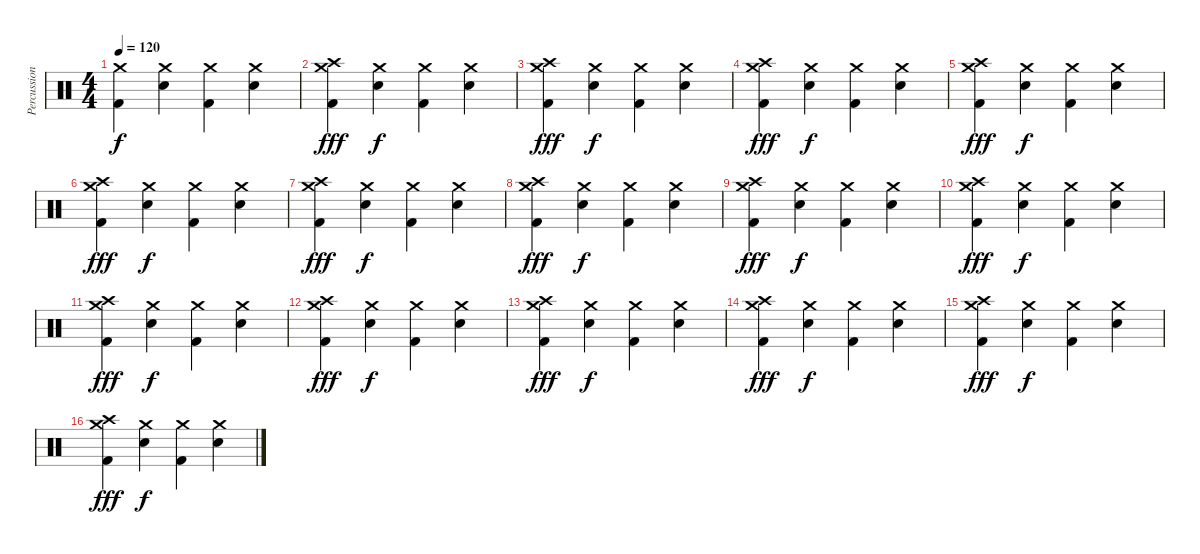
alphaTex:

\track ("Percussion" "Percussion") {instrument percussion}
\staff {score}
\articulation defaults
\ts (4 4)
\tempo 120
\clef neutral
\ks c
("Crash medium (hit)" "Kick (hit) 2").4{dy f} ("Crash medium (hit)" "Snare (hit) 2").4 ("Crash medium (hit)" "Kick (hit) 2").4 ("Crash medium (hit)" "Snare (hit) 2").4 |
("Crash medium (hit)" "Kick (hit) 2" "Crash high (hit)").4{dy fff} ("Crash medium (hit)" "Snare (hit) 2").4{dy f} ("Crash medium (hit)" "Kick (hit) 2").4 ("Crash medium (hit)" "Snare (hit) 2").4 |
("Crash medium (hit)" "Kick (hit) 2" "Crash high (hit)").4{dy fff} ("Crash medium (hit)" "Snare (hit) 2").4{dy f} ("Crash medium (hit)" "Kick (hit) 2").4 ("Crash medium (hit)" "Snare (hit) 2").4 |
("Crash medium (hit)" "Kick (hit) 2" "Crash high (hit)").4{dy fff} ("Crash medium (hit)" "Snare (hit) 2").4{dy f} ("Crash medium (hit)" "Kick (hit) 2").4 ("Crash medium (hit)" "Snare (hit) 2").4 |
("Crash medium (hit)" "Kick (hit) 2" "Crash high (hit)").4{dy fff} ("Crash medium (hit)" "Snare (hit) 2").4{dy f} ("Crash medium (hit)" "Kick (hit) 2").4 ("Crash medium (hit)" "Snare (hit) 2").4 |
("Crash medium (hit)" "Kick (hit) 2" "Crash high (hit)").4{dy fff} ("Crash medium (hit)" "Snare (hit) 2").4{dy f} ("Crash medium (hit)" "Kick (hit) 2").4 ("Crash medium (hit)" "Snare (hit) 2").4 |
("Crash medium (hit)" "Kick (hit) 2" "Crash high (hit)").4{dy fff} ("Crash medium (hit)" "Snare (hit) 2").4{dy f} ("Crash medium (hit)" "Kick (hit) 2").4 ("Crash medium (hit)" "Snare (hit) 2").4 |
("Crash medium (hit)" "Kick (hit) 2" "Crash high (hit)").4{dy fff} ("Crash medium (hit)" "Snare (hit) 2").4{dy f} ("Crash medium (hit)" "Kick (hit) 2").4 ("Crash medium (hit)" "Snare (hit) 2").4 |
("Crash medium (hit)" "Kick (hit) 2" "Crash high (hit)").4{dy fff} ("Crash medium (hit)" "Snare (hit) 2").4{dy f} ("Crash medium (hit)" "Kick (hit) 2").4 ("Crash medium (hit)" "Snare (hit) 2").4 |
("Crash medium (hit)" "Kick (hit) 2" "Crash high (hit)").4{dy fff} ("Crash medium (hit)" "Snare (hit) 2").4{dy f} ("Crash medium (hit)" "Kick (hit) 2").4 ("Crash medium (hit)" "Snare (hit) 2").4 |
("Crash medium (hit)" "Kick (hit) 2" "Crash high (hit)").4{dy fff} ("Crash medium (hit)" "Snare (hit) 2").4{dy f} ("Crash medium (hit)" "Kick (hit) 2").4 ("Crash medium (hit)" "Snare (hit) 2").4 |
("Crash medium (hit)" "Kick (hit) 2" "Crash high (hit)").4{dy fff} ("Crash medium (hit)" "Snare (hit) 2").4{dy f} ("Crash medium (hit)" "Kick (hit) 2").4 ("Crash medium (hit)" "Snare (hit) 2").4 |
("Crash medium (hit)" "Kick (hit) 2" "Crash high (hit)").4{dy fff} ("Crash medium (hit)" "Snare (hit) 2").4{dy f} ("Crash medium (hit)" "Kick (hit) 2").4 ("Crash medium (hit)" "Snare (hit) 2").4 |
("Crash medium (hit)" "Kick (hit) 2" "Crash high (hit)").4{dy fff} ("Crash medium (hit)" "Snare (hit) 2").4{dy f} ("Crash medium (hit)" "Kick (hit) 2").4 ("Crash medium (hit)" "Snare (hit) 2").4 |
("Crash medium (hit)" "Kick (hit) 2" "Crash high (hit)").4{dy fff} ("Crash medium (hit)" "Snare (hit) 2").4{dy f} ("Crash medium (hit)" "Kick (hit) 2").4 ("Crash medium (hit)" "Snare (hit) 2").4 |
("Crash medium (hit)" "Kick (hit) 2" "Crash high (hit)").4{dy fff} ("Crash medium (hit)" "Snare (hit) 2").4{dy f} ("Crash medium (hit)" "Kick (hit) 2").4 ("Crash medium (hit)" "Snare (hit) 2").4
